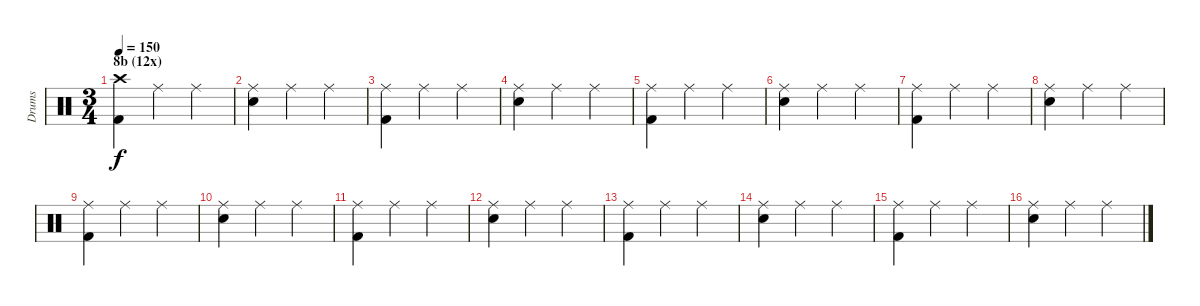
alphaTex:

\track ("Drums" "Drums") {instrument percussion}
\staff {score}
\articulation defaults
\ts (3 4)
\section ("" "8b (12x)")
\tempo 150
\clef neutral
\ks c
("Crash high (hit)" "Kick (hit) 2").4{dy f} "Ride (middle)".4 "Ride (middle)".4 |
("Ride (middle)" "Snare (hit) 2").4 "Ride (middle)".4 "Ride (middle)".4 |
("Ride (middle)" "Kick (hit) 2").4 "Ride (middle)".4 "Ride (middle)".4 |
("Ride (middle)" "Snare (hit) 2").4 "Ride (middle)".4 "Ride (middle)".4 |
("Ride (middle)" "Kick (hit) 2").4 "Ride (middle)".4 "Ride (middle)".4 |
("Ride (middle)" "Snare (hit) 2").4 "Ride (middle)".4 "Ride (middle)".4 |
("Ride (middle)" "Kick (hit) 2").4 "Ride (middle)".4 "Ride (middle)".4 |
("Ride (middle)" "Snare (hit) 2").4 "Ride (middle)".4 "Ride (middle)".4 |
("Ride (middle)" "Kick (hit) 2").4 "Ride (middle)".4 "Ride (middle)".4 |
("Ride (middle)" "Snare (hit) 2").4 "Ride (middle)".4 "Ride (middle)".4 |
("Ride (middle)" "Kick (hit) 2").4 "Ride (middle)".4 "Ride (middle)".4 |
("Ride (middle)" "Snare (hit) 2").4 "Ride (middle)".4 "Ride (middle)".4 |
("Ride (middle)" "Kick (hit) 2").4 "Ride (middle)".4 "Ride (middle)".4 |
("Ride (middle)" "Snare (hit) 2").4 "Ride (middle)".4 "Ride (middle)".4 |
("Ride (middle)" "Kick (hit) 2").4 "Ride (middle)".4 "Ride (middle)".4 |
("Ride (middle)" "Snare (hit) 2").4 "Ride (middle)".4 "Ride (middle)".4
